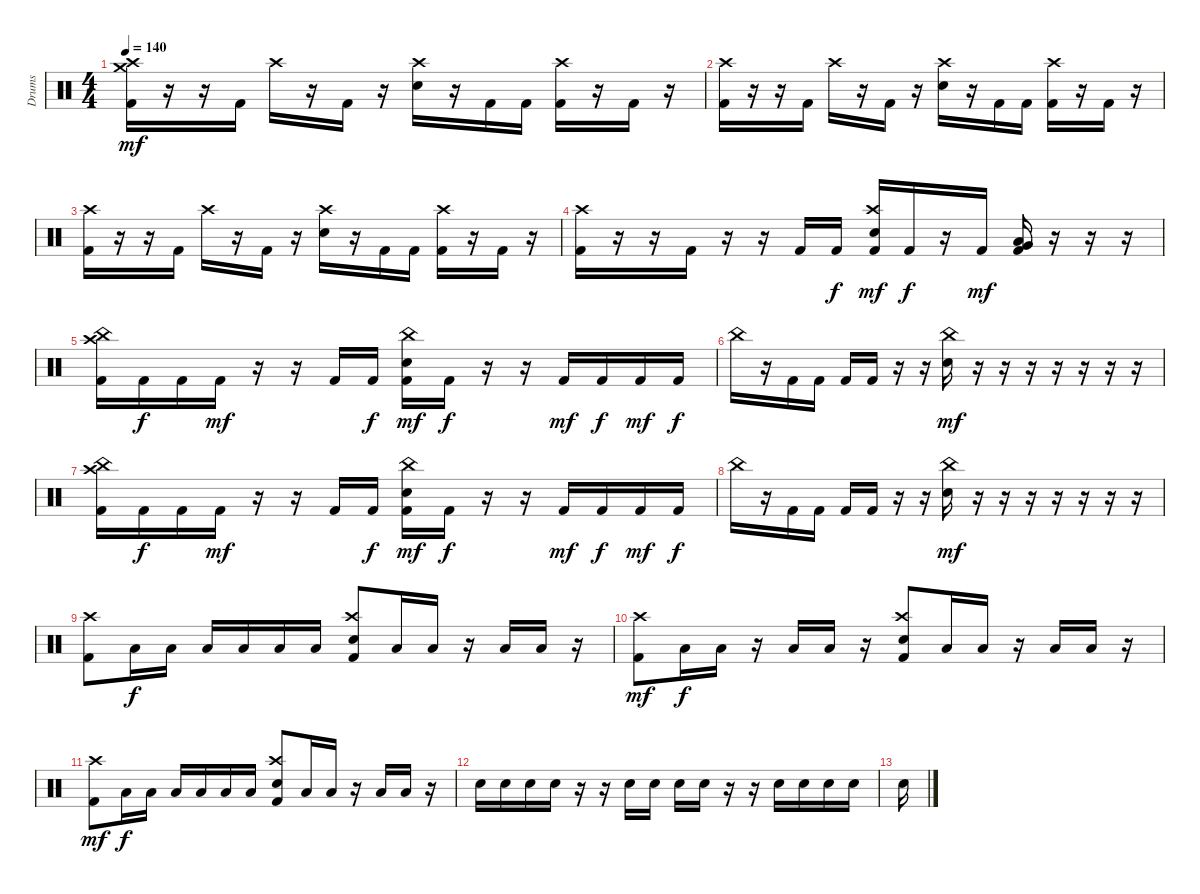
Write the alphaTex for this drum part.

\track ("Drums" "Drums") {instrument percussion}
\staff {score}
\articulation defaults
\ts (4 4)
\tempo 140
\clef neutral
\ks c
("Kick (hit) 2" "Crash high (hit)" "Crash medium (hit)").16{dy mf} r.16 r.16 "Kick (hit) 2".16 "Crash high (hit)".16 r.16 "Kick (hit) 2".16 r.16 ("Snare (hit) 2" "Crash high (hit)").16 r.16 "Kick (hit) 2".16 "Kick (hit) 2".16 ("Kick (hit) 2" "Crash high (hit)").16 r.16 "Kick (hit) 2".16 r.16 |
("Kick (hit) 2" "Crash high (hit)").16 r.16 r.16 "Kick (hit) 2".16 "Crash high (hit)".16 r.16 "Kick (hit) 2".16 r.16 ("Snare (hit) 2" "Crash high (hit)").16 r.16 "Kick (hit) 2".16 "Kick (hit) 2".16 ("Kick (hit) 2" "Crash high (hit)").16 r.16 "Kick (hit) 2".16 r.16 |
("Kick (hit) 2" "Crash high (hit)").16 r.16 r.16 "Kick (hit) 2".16 "Crash high (hit)".16 r.16 "Kick (hit) 2".16 r.16 ("Snare (hit) 2" "Crash high (hit)").16 r.16 "Kick (hit) 2".16 "Kick (hit) 2".16 ("Kick (hit) 2" "Crash high (hit)").16 r.16 "Kick (hit) 2".16 r.16 |
("Kick (hit) 2" "Crash high (hit)").16 r.16 r.16 "Kick (hit) 2".16 r.16 r.16 "Kick (hit) 2".16 "Kick (hit) 2".16{dy f} ("Kick (hit) 2" "Snare (hit) 2" "Crash high (hit)").16{dy mf} "Kick (hit) 2".16{dy f} r.16 "Kick (hit) 2".16{dy mf} ("Kick (hit) 2" "Low Tom (hit)" "Very Low Tom (hit)").16 r.16 r.16 r.16 |
("Kick (hit) 2" "Crash high (hit)" "China (hit)").16 "Kick (hit) 2".16{dy f} "Kick (hit) 2".16 "Kick (hit) 2".16{dy mf} r.16 r.16 "Kick (hit) 2".16 "Kick (hit) 2".16{dy f} ("Kick (hit) 2" "Snare (hit) 2" "China (hit)").16{dy mf} "Kick (hit) 2".16{dy f} r.16 r.16 "Kick (hit) 2".16{dy mf} "Kick (hit) 2".16{dy f} "Kick (hit) 2".16{dy mf} "Kick (hit) 2".16{dy f} |
"China (hit)".16 r.16 "Kick (hit) 2".16 "Kick (hit) 2".16 "Kick (hit) 2".16 "Kick (hit) 2".16 r.16 r.16 ("Snare (hit) 2" "China (hit)").16{dy mf} r.16 r.16 r.16 r.16 r.16 r.16 r.16 |
("Kick (hit) 2" "Crash high (hit)" "China (hit)").16 "Kick (hit) 2".16{dy f} "Kick (hit) 2".16 "Kick (hit) 2".16{dy mf} r.16 r.16 "Kick (hit) 2".16 "Kick (hit) 2".16{dy f} ("Kick (hit) 2" "Snare (hit) 2" "China (hit)").16{dy mf} "Kick (hit) 2".16{dy f} r.16 r.16 "Kick (hit) 2".16{dy mf} "Kick (hit) 2".16{dy f} "Kick (hit) 2".16{dy mf} "Kick (hit) 2".16{dy f} |
"China (hit)".16 r.16 "Kick (hit) 2".16 "Kick (hit) 2".16 "Kick (hit) 2".16 "Kick (hit) 2".16 r.16 r.16 ("Snare (hit) 2" "China (hit)").16{dy mf} r.16 r.16 r.16 r.16 r.16 r.16 r.16 |
("Kick (hit) 2" "Crash high (hit)").8 "Low Tom (hit)".16{dy f} "Low Tom (hit)".16 "Low Tom (hit)".16 "Low Tom (hit)".16 "Low Tom (hit)".16 "Low Tom (hit)".16 ("Kick (hit) 2" "Snare (hit) 2" "Crash high (hit)").8 "Low Tom (hit)".16 "Low Tom (hit)".16 r.16 "Low Tom (hit)".16 "Low Tom (hit)".16 r.16 |
("Kick (hit) 2" "Crash high (hit)").8{dy mf} "Low Tom (hit)".16{dy f} "Low Tom (hit)".16 r.16 "Low Tom (hit)".16 "Low Tom (hit)".16 r.16 ("Kick (hit) 2" "Snare (hit) 2" "Crash high (hit)").8 "Low Tom (hit)".16 "Low Tom (hit)".16 r.16 "Low Tom (hit)".16 "Low Tom (hit)".16 r.16 |
("Kick (hit) 2" "Crash high (hit)").8{dy mf} "Low Tom (hit)".16{dy f} "Low Tom (hit)".16 "Low Tom (hit)".16 "Low Tom (hit)".16 "Low Tom (hit)".16 "Low Tom (hit)".16 ("Kick (hit) 2" "Snare (hit) 2" "Crash high (hit)").8 "Low Tom (hit)".16 "Low Tom (hit)".16 r.16 "Low Tom (hit)".16 "Low Tom (hit)".16 r.16 |
"Snare (hit) 2".16 "Snare (hit) 2".16 "Snare (hit) 2".16 "Snare (hit) 2".16 r.16 r.16 "Snare (hit) 2".16 "Snare (hit) 2".16 "Snare (hit) 2".16 "Snare (hit) 2".16 r.16 r.16 "Snare (hit) 2".16 "Snare (hit) 2".16 "Snare (hit) 2".16 "Snare (hit) 2".16 |
"Snare (hit) 2".16
